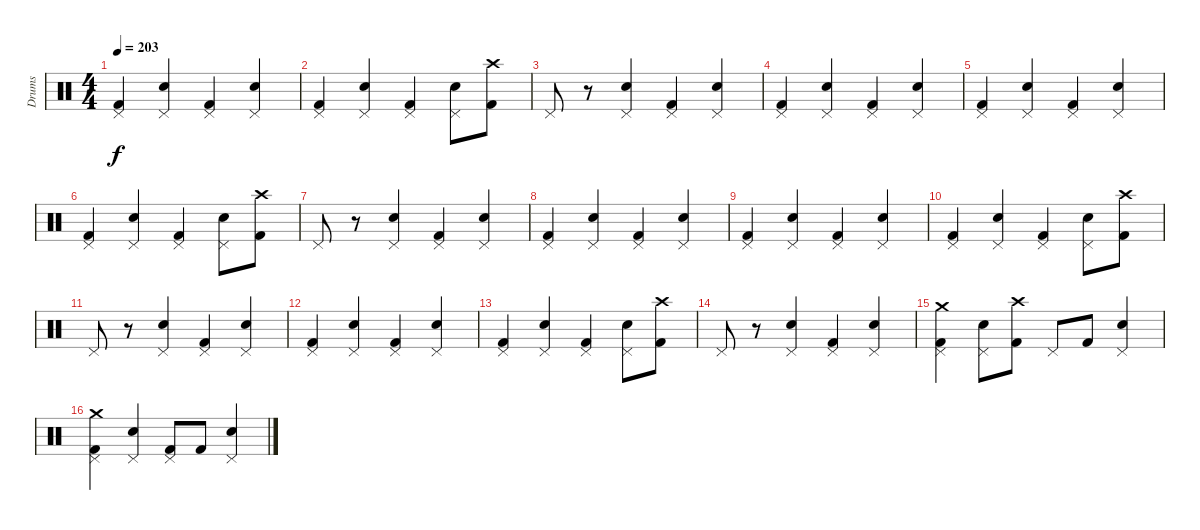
\track ("Drums" "Drums") {instrument percussion}
\staff {score}
\articulation defaults
\ts (4 4)
\tempo 203
\clef neutral
\ks c
("Pedal Hi-Hat (hit)" "Kick (hit) 2").4{dy f} ("Pedal Hi-Hat (hit)" "Snare (hit) 2").4 ("Pedal Hi-Hat (hit)" "Kick (hit) 2").4 ("Pedal Hi-Hat (hit)" "Snare (hit) 2").4 |
("Pedal Hi-Hat (hit)" "Kick (hit) 2").4 ("Pedal Hi-Hat (hit)" "Snare (hit) 2").4 ("Pedal Hi-Hat (hit)" "Kick (hit) 2").4 ("Pedal Hi-Hat (hit)" "Snare (hit) 2").8 ("Crash high (hit)" "Kick (hit) 2").8 |
"Pedal Hi-Hat (hit)".8 r.8 ("Pedal Hi-Hat (hit)" "Snare (hit) 2").4 ("Pedal Hi-Hat (hit)" "Kick (hit) 2").4 ("Pedal Hi-Hat (hit)" "Snare (hit) 2").4 |
("Pedal Hi-Hat (hit)" "Kick (hit) 2").4 ("Pedal Hi-Hat (hit)" "Snare (hit) 2").4 ("Pedal Hi-Hat (hit)" "Kick (hit) 2").4 ("Pedal Hi-Hat (hit)" "Snare (hit) 2").4 |
("Pedal Hi-Hat (hit)" "Kick (hit) 2").4 ("Pedal Hi-Hat (hit)" "Snare (hit) 2").4 ("Pedal Hi-Hat (hit)" "Kick (hit) 2").4 ("Pedal Hi-Hat (hit)" "Snare (hit) 2").4 |
("Pedal Hi-Hat (hit)" "Kick (hit) 2").4 ("Pedal Hi-Hat (hit)" "Snare (hit) 2").4 ("Pedal Hi-Hat (hit)" "Kick (hit) 2").4 ("Pedal Hi-Hat (hit)" "Snare (hit) 2").8 ("Crash high (hit)" "Kick (hit) 2").8 |
"Pedal Hi-Hat (hit)".8 r.8 ("Pedal Hi-Hat (hit)" "Snare (hit) 2").4 ("Pedal Hi-Hat (hit)" "Kick (hit) 2").4 ("Pedal Hi-Hat (hit)" "Snare (hit) 2").4 |
("Pedal Hi-Hat (hit)" "Kick (hit) 2").4 ("Pedal Hi-Hat (hit)" "Snare (hit) 2").4 ("Pedal Hi-Hat (hit)" "Kick (hit) 2").4 ("Pedal Hi-Hat (hit)" "Snare (hit) 2").4 |
("Kick (hit) 2" "Pedal Hi-Hat (hit)").4 ("Pedal Hi-Hat (hit)" "Snare (hit) 2").4 ("Pedal Hi-Hat (hit)" "Kick (hit) 2").4 ("Pedal Hi-Hat (hit)" "Snare (hit) 2").4 |
("Pedal Hi-Hat (hit)" "Kick (hit) 2").4 ("Pedal Hi-Hat (hit)" "Snare (hit) 2").4 ("Pedal Hi-Hat (hit)" "Kick (hit) 2").4 ("Pedal Hi-Hat (hit)" "Snare (hit) 2").8 ("Crash high (hit)" "Kick (hit) 2").8 |
"Pedal Hi-Hat (hit)".8 r.8 ("Pedal Hi-Hat (hit)" "Snare (hit) 2").4 ("Pedal Hi-Hat (hit)" "Kick (hit) 2").4 ("Pedal Hi-Hat (hit)" "Snare (hit) 2").4 |
("Pedal Hi-Hat (hit)" "Kick (hit) 2").4 ("Pedal Hi-Hat (hit)" "Snare (hit) 2").4 ("Pedal Hi-Hat (hit)" "Kick (hit) 2").4 ("Pedal Hi-Hat (hit)" "Snare (hit) 2").4 |
("Pedal Hi-Hat (hit)" "Kick (hit) 2").4 ("Pedal Hi-Hat (hit)" "Snare (hit) 2").4 ("Pedal Hi-Hat (hit)" "Kick (hit) 2").4 ("Pedal Hi-Hat (hit)" "Snare (hit) 2").8 ("Crash high (hit)" "Kick (hit) 2").8 |
"Pedal Hi-Hat (hit)".8 r.8 ("Pedal Hi-Hat (hit)" "Snare (hit) 2").4 ("Pedal Hi-Hat (hit)" "Kick (hit) 2").4 ("Pedal Hi-Hat (hit)" "Snare (hit) 2").4 |
("Pedal Hi-Hat (hit)" "Kick (hit) 2" "Crash medium (hit)").4 ("Pedal Hi-Hat (hit)" "Snare (hit) 2").8 ("Kick (hit) 2" "Crash high (hit)").8 "Pedal Hi-Hat (hit)".8 "Kick (hit) 2".8 ("Pedal Hi-Hat (hit)" "Snare (hit) 2").4 |
("Pedal Hi-Hat (hit)" "Kick (hit) 2" "Crash medium (hit)").4 ("Pedal Hi-Hat (hit)" "Snare (hit) 2").4 ("Pedal Hi-Hat (hit)" "Kick (hit) 2").8 "Kick (hit) 2".8 ("Pedal Hi-Hat (hit)" "Snare (hit) 2").4
